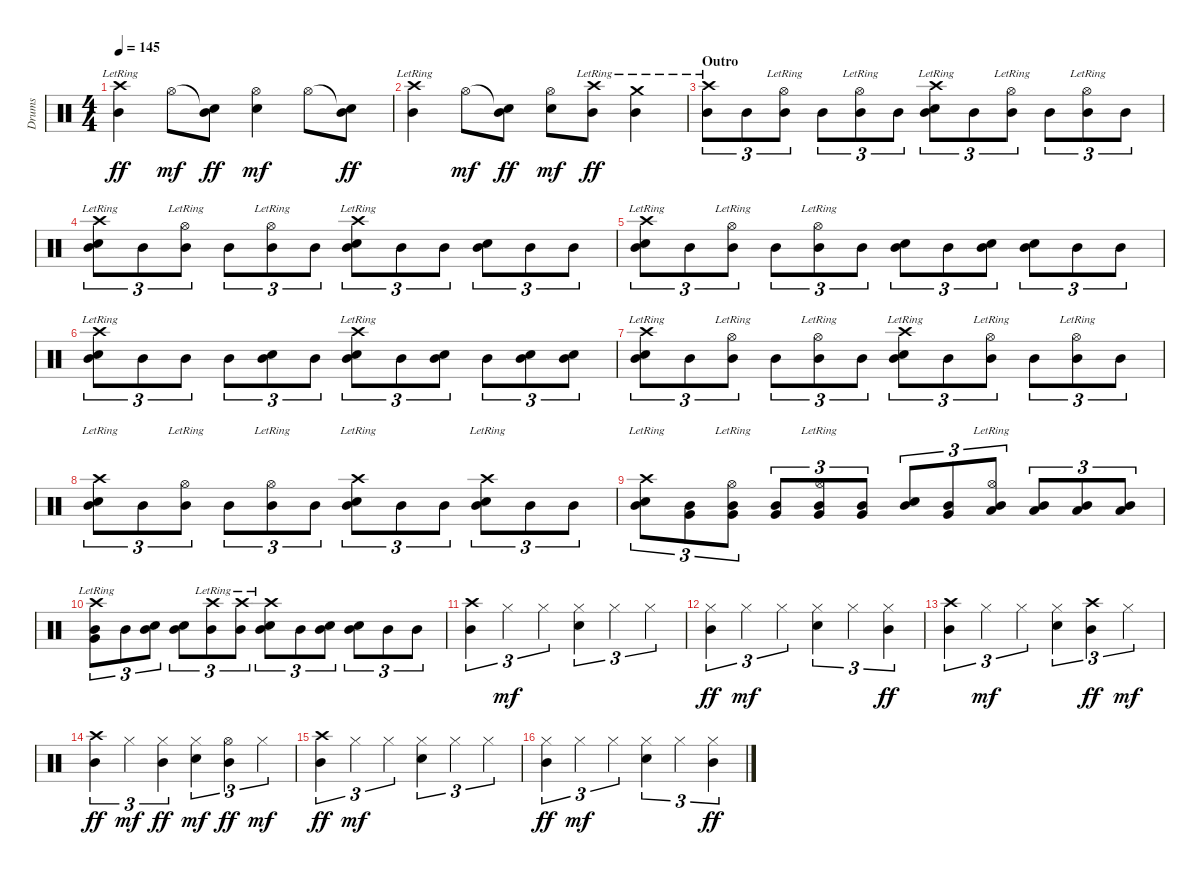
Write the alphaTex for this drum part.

\track ("Drums" "Drums") {instrument percussion}
\staff {score}
\articulation defaults
\ts (4 4)
\tempo 145
\clef neutral
\ks c
("Crash high (hit)"{lr} "Mid Tom (hit)").4{dy ff} "Hi-Hat (open)".8{dy mf} ("Snare (hit)"{t} "Mid Tom (hit)").8{dy ff} ("Hi-Hat (open)" "Electric Snare (hit)").4{dy mf} "Hi-Hat (open)".8 ("Snare (hit)"{t} "Mid Tom (hit)").8{dy ff} |
("Crash high (hit)"{lr} "Mid Tom (hit)").4 "Hi-Hat (open)".8{dy mf} ("Snare (hit)"{t} "Mid Tom (hit)").8{dy ff} ("Hi-Hat (open)" "Electric Snare (hit)").8{dy mf} ("Crash high (hit)"{lr} "Mid Tom (hit)").8{dy ff} ("Crash medium (hit)"{lr} "Mid Tom (hit)").4 |
\section ("" "Outro")
("Crash high (hit)"{lr} "Mid Tom (hit)").8{tu (3 2)} "Mid Tom (hit)".8{tu (3 2)} ("Hi-Hat (open)"{lr} "Mid Tom (hit)").8{tu (3 2)} "Mid Tom (hit)".8{tu (3 2)} ("Hi-Hat (open)"{lr} "Mid Tom (hit)").8{tu (3 2)} "Mid Tom (hit)".8{tu (3 2)} ("Crash high (hit)"{lr} "Electric Snare (hit)" "Mid Tom (hit)").8{tu (3 2)} "Mid Tom (hit)".8{tu (3 2)} ("Hi-Hat (open)"{lr} "Mid Tom (hit)").8{tu (3 2)} "Mid Tom (hit)".8{tu (3 2)} ("Hi-Hat (open)"{lr} "Mid Tom (hit)").8{tu (3 2)} "Mid Tom (hit)".8{tu (3 2)} |
("Crash high (hit)"{lr} "Electric Snare (hit)" "Mid Tom (hit)").8{tu (3 2)} "Mid Tom (hit)".8{tu (3 2)} ("Hi-Hat (open)"{lr} "Mid Tom (hit)").8{tu (3 2)} "Mid Tom (hit)".8{tu (3 2)} ("Hi-Hat (open)"{lr} "Mid Tom (hit)").8{tu (3 2)} "Mid Tom (hit)".8{tu (3 2)} ("Crash high (hit)"{lr} "Electric Snare (hit)" "Mid Tom (hit)").8{tu (3 2)} "Mid Tom (hit)".8{tu (3 2)} "Mid Tom (hit)".8{tu (3 2)} ("Electric Snare (hit)" "Mid Tom (hit)").8{tu (3 2)} "Mid Tom (hit)".8{tu (3 2)} "Mid Tom (hit)".8{tu (3 2)} |
("Crash high (hit)"{lr} "Electric Snare (hit)" "Mid Tom (hit)").8{tu (3 2)} "Mid Tom (hit)".8{tu (3 2)} ("Hi-Hat (open)"{lr} "Mid Tom (hit)").8{tu (3 2)} "Mid Tom (hit)".8{tu (3 2)} ("Hi-Hat (open)"{lr} "Mid Tom (hit)").8{tu (3 2)} "Mid Tom (hit)".8{tu (3 2)} ("Electric Snare (hit)" "Mid Tom (hit)").8{tu (3 2)} "Mid Tom (hit)".8{tu (3 2)} ("Electric Snare (hit)" "Mid Tom (hit)").8{tu (3 2)} ("Electric Snare (hit)" "Mid Tom (hit)").8{tu (3 2)} "Mid Tom (hit)".8{tu (3 2)} "Mid Tom (hit)".8{tu (3 2)} |
("Crash high (hit)"{lr} "Electric Snare (hit)" "Mid Tom (hit)").8{tu (3 2)} "Mid Tom (hit)".8{tu (3 2)} "Mid Tom (hit)".8{tu (3 2)} "Mid Tom (hit)".8{tu (3 2)} ("Electric Snare (hit)" "Mid Tom (hit)").8{tu (3 2)} "Mid Tom (hit)".8{tu (3 2)} ("Crash high (hit)"{lr} "Electric Snare (hit)" "Mid Tom (hit)").8{tu (3 2)} "Mid Tom (hit)".8{tu (3 2)} ("Electric Snare (hit)" "Mid Tom (hit)").8{tu (3 2)} "Mid Tom (hit)".8{tu (3 2)} ("Electric Snare (hit)" "Mid Tom (hit)").8{tu (3 2)} ("Electric Snare (hit)" "Mid Tom (hit)").8{tu (3 2)} |
("Crash high (hit)"{lr} "Electric Snare (hit)" "Mid Tom (hit)").8{tu (3 2)} "Mid Tom (hit)".8{tu (3 2)} ("Hi-Hat (open)"{lr} "Mid Tom (hit)").8{tu (3 2)} "Mid Tom (hit)".8{tu (3 2)} ("Hi-Hat (open)"{lr} "Mid Tom (hit)").8{tu (3 2)} "Mid Tom (hit)".8{tu (3 2)} ("Crash high (hit)"{lr} "Electric Snare (hit)" "Mid Tom (hit)").8{tu (3 2)} "Mid Tom (hit)".8{tu (3 2)} ("Hi-Hat (open)"{lr} "Mid Tom (hit)").8{tu (3 2)} "Mid Tom (hit)".8{tu (3 2)} ("Hi-Hat (open)"{lr} "Mid Tom (hit)").8{tu (3 2)} "Mid Tom (hit)".8{tu (3 2)} |
("Crash high (hit)"{lr} "Electric Snare (hit)" "Mid Tom (hit)").8{tu (3 2)} "Mid Tom (hit)".8{tu (3 2)} ("Hi-Hat (open)"{lr} "Mid Tom (hit)").8{tu (3 2)} "Mid Tom (hit)".8{tu (3 2)} ("Hi-Hat (open)"{lr} "Mid Tom (hit)").8{tu (3 2)} "Mid Tom (hit)".8{tu (3 2)} ("Crash high (hit)"{lr} "Electric Snare (hit)" "Mid Tom (hit)").8{tu (3 2)} "Mid Tom (hit)".8{tu (3 2)} "Mid Tom (hit)".8{tu (3 2)} ("Crash high (hit)"{lr} "Electric Snare (hit)" "Mid Tom (hit)").8{tu (3 2)} "Mid Tom (hit)".8{tu (3 2)} "Mid Tom (hit)".8{tu (3 2)} |
("Crash high (hit)"{lr} "Electric Snare (hit)" "Mid Tom (hit)").8{tu (3 2)} ("Very Low Tom (hit)" "Mid Tom (hit)").8{tu (3 2)} ("Hi-Hat (open)"{lr} "Very Low Tom (hit)" "Mid Tom (hit)").8{tu (3 2)} ("Very Low Tom (hit)" "Mid Tom (hit)").8{tu (3 2)} ("Hi-Hat (open)"{lr} "Very Low Tom (hit)" "Mid Tom (hit)").8{tu (3 2)} ("Very Low Tom (hit)" "Mid Tom (hit)").8{tu (3 2)} ("Electric Snare (hit)" "Mid Tom (hit)").8{tu (3 2)} ("Very Low Tom (hit)" "Mid Tom (hit)").8{tu (3 2)} ("Hi-Hat (open)"{lr} "Low Floor Tom (hit)" "Mid Tom (hit)").8{tu (3 2)} ("Low Floor Tom (hit)" "Mid Tom (hit)").8{tu (3 2)} ("Low Floor Tom (hit)" "Mid Tom (hit)").8{tu (3 2)} ("Low Floor Tom (hit)" "Mid Tom (hit)").8{tu (3 2)} |
("Crash high (hit)"{lr} "Very Low Tom (hit)" "Mid Tom (hit)").8{tu (3 2)} "Mid Tom (hit)".8{tu (3 2)} ("Electric Snare (hit)" "Mid Tom (hit)").8{tu (3 2)} ("Electric Snare (hit)" "Mid Tom (hit)").8{tu (3 2)} ("Crash high (hit)"{lr} "Mid Tom (hit)").8{tu (3 2)} ("Crash high (hit)"{lr} "Mid Tom (hit)").8{tu (3 2)} ("Crash high (hit)"{lr} "Electric Snare (hit)" "Mid Tom (hit)").8{tu (3 2)} "Mid Tom (hit)".8{tu (3 2)} ("Electric Snare (hit)" "Mid Tom (hit)").8{tu (3 2)} ("Electric Snare (hit)" "Mid Tom (hit)").8{tu (3 2)} "Mid Tom (hit)".8{tu (3 2)} "Mid Tom (hit)".8{tu (3 2)} |
("Crash high (hit)" "Mid Tom (hit)").4{tu (3 2)} "Hi-Hat (closed)".4{tu (3 2) dy mf} "Hi-Hat (closed)".4{tu (3 2)} ("Hi-Hat (closed)" "Electric Snare (hit)").4{tu (3 2)} "Hi-Hat (closed)".4{tu (3 2)} "Hi-Hat (closed)".4{tu (3 2)} |
("Hi-Hat (closed)" "Mid Tom (hit)").4{tu (3 2) dy ff} "Hi-Hat (closed)".4{tu (3 2) dy mf} "Hi-Hat (closed)".4{tu (3 2)} ("Hi-Hat (closed)" "Electric Snare (hit)").4{tu (3 2)} "Hi-Hat (closed)".4{tu (3 2)} ("Hi-Hat (closed)" "Mid Tom (hit)").4{tu (3 2) dy ff} |
("Crash high (hit)" "Mid Tom (hit)").4{tu (3 2)} "Hi-Hat (closed)".4{tu (3 2) dy mf} "Hi-Hat (closed)".4{tu (3 2)} ("Hi-Hat (closed)" "Electric Snare (hit)").4{tu (3 2)} ("Crash high (hit)" "Mid Tom (hit)").4{tu (3 2) dy ff} "Hi-Hat (closed)".4{tu (3 2) dy mf} |
("Crash high (hit)" "Mid Tom (hit)").4{tu (3 2) dy ff} "Hi-Hat (closed)".4{tu (3 2) dy mf} ("Hi-Hat (closed)" "Mid Tom (hit)").4{tu (3 2) dy ff} ("Hi-Hat (closed)" "Electric Snare (hit)").4{tu (3 2) dy mf} ("Hi-Hat (open)" "Mid Tom (hit)").4{tu (3 2) dy ff} "Hi-Hat (closed)".4{tu (3 2) dy mf} |
("Crash high (hit)" "Mid Tom (hit)").4{tu (3 2) dy ff} "Hi-Hat (closed)".4{tu (3 2) dy mf} "Hi-Hat (closed)".4{tu (3 2)} ("Hi-Hat (closed)" "Electric Snare (hit)").4{tu (3 2)} "Hi-Hat (closed)".4{tu (3 2)} "Hi-Hat (closed)".4{tu (3 2)} |
("Hi-Hat (closed)" "Mid Tom (hit)").4{tu (3 2) dy ff} "Hi-Hat (closed)".4{tu (3 2) dy mf} "Hi-Hat (closed)".4{tu (3 2)} ("Hi-Hat (closed)" "Electric Snare (hit)").4{tu (3 2)} "Hi-Hat (closed)".4{tu (3 2)} ("Hi-Hat (closed)" "Mid Tom (hit)").4{tu (3 2) dy ff}
